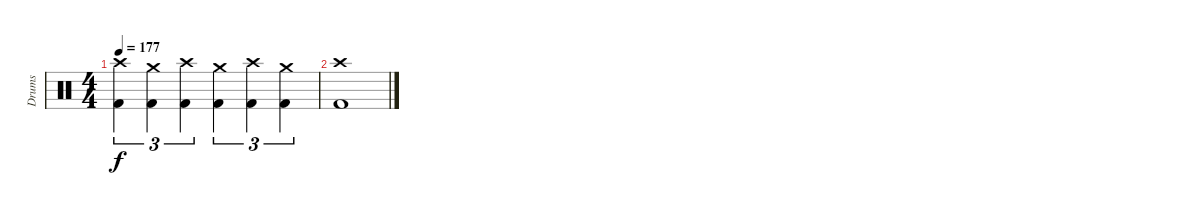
\track ("Drums" "Drums") {instrument percussion}
\staff {score}
\articulation defaults
\ts (4 4)
\tempo 177
\clef neutral
\ks c
("Crash high (hit)" "Kick (hit) 2").4{tu (3 2) dy f} ("Crash medium (hit)" "Kick (hit) 2").4{tu (3 2)} ("Crash high (hit)" "Kick (hit) 2").4{tu (3 2)} ("Crash medium (hit)" "Kick (hit) 2").4{tu (3 2)} ("Crash high (hit)" "Kick (hit) 2").4{tu (3 2)} ("Crash medium (hit)" "Kick (hit) 2").4{tu (3 2)} |
("Crash high (hit)" "Kick (hit) 2").1
